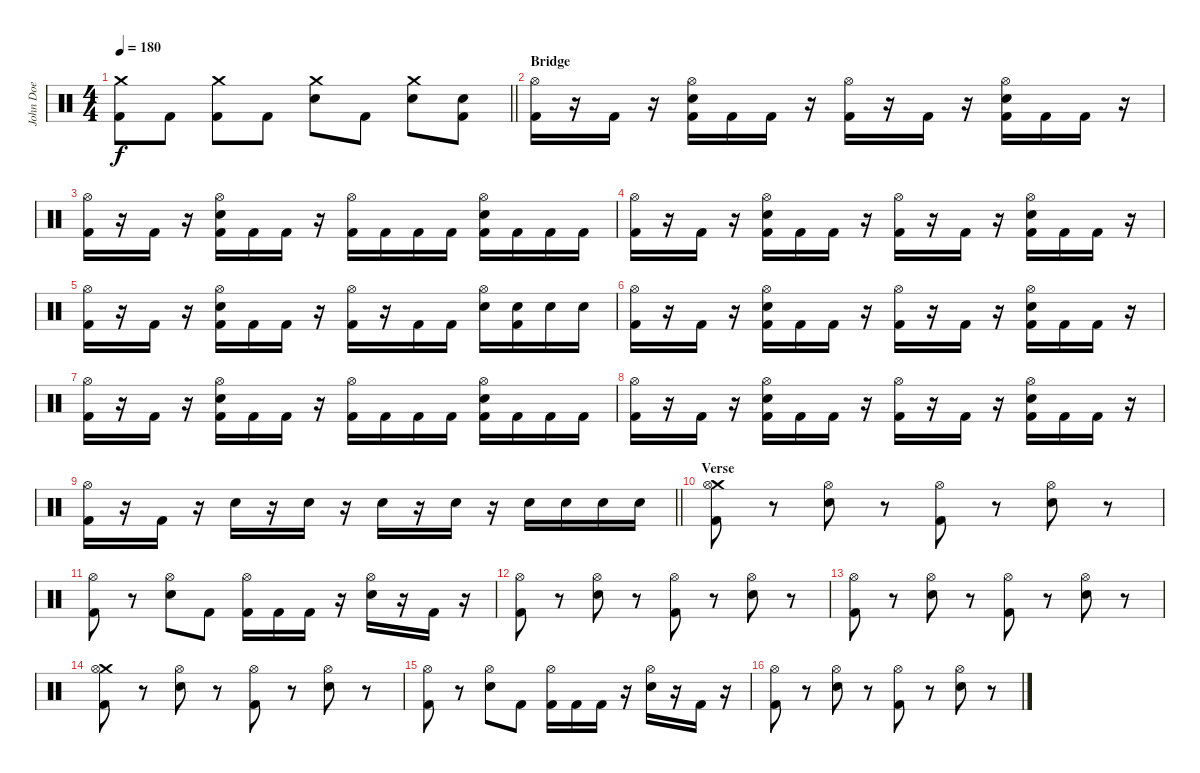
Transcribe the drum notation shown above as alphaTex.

\track ("John Doe" "John Doe") {instrument percussion}
\staff {score}
\articulation defaults
\ts (4 4)
\tempo 180
\clef neutral
\barLineRight lightlight
\ks c
("Crash medium (hit)" "Kick (hit) 2").8{dy f} "Kick (hit) 2".8 ("Crash medium (hit)" "Kick (hit) 2").8 "Kick (hit) 2".8 ("Crash medium (hit)" "Electric Snare (hit)").8 "Kick (hit) 2".8 ("Crash medium (hit)" "Electric Snare (hit)").8 ("Electric Snare (hit)" "Kick (hit) 2").8 |
\section ("" "Bridge")
("Hi-Hat (open)" "Kick (hit) 2").16 r.16 "Kick (hit) 2".16 r.16 ("Hi-Hat (open)" "Electric Snare (hit)" "Kick (hit) 2").16 "Kick (hit) 2".16 "Kick (hit) 2".16 r.16 ("Hi-Hat (open)" "Kick (hit) 2").16 r.16 "Kick (hit) 2".16 r.16 ("Hi-Hat (open)" "Electric Snare (hit)" "Kick (hit) 2").16 "Kick (hit) 2".16 "Kick (hit) 2".16 r.16 |
("Hi-Hat (open)" "Kick (hit) 2").16 r.16 "Kick (hit) 2".16 r.16 ("Hi-Hat (open)" "Electric Snare (hit)" "Kick (hit) 2").16 "Kick (hit) 2".16 "Kick (hit) 2".16 r.16 ("Hi-Hat (open)" "Kick (hit) 2").16 "Kick (hit) 2".16 "Kick (hit) 2".16 "Kick (hit) 2".16 ("Hi-Hat (open)" "Electric Snare (hit)" "Kick (hit) 2").16 "Kick (hit) 2".16 "Kick (hit) 2".16 "Kick (hit) 2".16 |
("Hi-Hat (open)" "Kick (hit) 2").16 r.16 "Kick (hit) 2".16 r.16 ("Hi-Hat (open)" "Electric Snare (hit)" "Kick (hit) 2").16 "Kick (hit) 2".16 "Kick (hit) 2".16 r.16 ("Hi-Hat (open)" "Kick (hit) 2").16 r.16 "Kick (hit) 2".16 r.16 ("Hi-Hat (open)" "Electric Snare (hit)" "Kick (hit) 2").16 "Kick (hit) 2".16 "Kick (hit) 2".16 r.16 |
("Hi-Hat (open)" "Kick (hit) 2").16 r.16 "Kick (hit) 2".16 r.16 ("Hi-Hat (open)" "Electric Snare (hit)" "Kick (hit) 2").16 "Kick (hit) 2".16 "Kick (hit) 2".16 r.16 ("Hi-Hat (open)" "Kick (hit) 2").16 r.16 "Kick (hit) 2".16 "Kick (hit) 2".16 ("Hi-Hat (open)" "Electric Snare (hit)").16 ("Electric Snare (hit)" "Kick (hit) 2").16 "Electric Snare (hit)".16 "Electric Snare (hit)".16 |
("Hi-Hat (open)" "Kick (hit) 2").16 r.16 "Kick (hit) 2".16 r.16 ("Hi-Hat (open)" "Electric Snare (hit)" "Kick (hit) 2").16 "Kick (hit) 2".16 "Kick (hit) 2".16 r.16 ("Hi-Hat (open)" "Kick (hit) 2").16 r.16 "Kick (hit) 2".16 r.16 ("Hi-Hat (open)" "Electric Snare (hit)" "Kick (hit) 2").16 "Kick (hit) 2".16 "Kick (hit) 2".16 r.16 |
("Hi-Hat (open)" "Kick (hit) 2").16 r.16 "Kick (hit) 2".16 r.16 ("Hi-Hat (open)" "Electric Snare (hit)" "Kick (hit) 2").16 "Kick (hit) 2".16 "Kick (hit) 2".16 r.16 ("Hi-Hat (open)" "Kick (hit) 2").16 "Kick (hit) 2".16 "Kick (hit) 2".16 "Kick (hit) 2".16 ("Hi-Hat (open)" "Electric Snare (hit)" "Kick (hit) 2").16 "Kick (hit) 2".16 "Kick (hit) 2".16 "Kick (hit) 2".16 |
("Hi-Hat (open)" "Kick (hit) 2").16 r.16 "Kick (hit) 2".16 r.16 ("Hi-Hat (open)" "Electric Snare (hit)" "Kick (hit) 2").16 "Kick (hit) 2".16 "Kick (hit) 2".16 r.16 ("Hi-Hat (open)" "Kick (hit) 2").16 r.16 "Kick (hit) 2".16 r.16 ("Hi-Hat (open)" "Electric Snare (hit)" "Kick (hit) 2").16 "Kick (hit) 2".16 "Kick (hit) 2".16 r.16 |
\barLineRight lightlight
("Hi-Hat (open)" "Kick (hit) 2").16 r.16 "Kick (hit) 2".16 r.16 "Electric Snare (hit)".16 r.16 "Electric Snare (hit)".16 r.16 "Electric Snare (hit)".16 r.16 "Electric Snare (hit)".16 r.16 "Electric Snare (hit)".16 "Electric Snare (hit)".16 "Electric Snare (hit)".16 "Electric Snare (hit)".16 |
\section ("" "Verse")
("Crash medium (hit)" "Hi-Hat (open)" "Kick (hit) 2").8 r.8 ("Hi-Hat (open)" "Electric Snare (hit)").8 r.8 ("Hi-Hat (open)" "Kick (hit) 2").8 r.8 ("Hi-Hat (open)" "Electric Snare (hit)").8 r.8 |
("Hi-Hat (open)" "Kick (hit) 2").8 r.8 ("Hi-Hat (open)" "Electric Snare (hit)").8 "Kick (hit) 2".8 ("Hi-Hat (open)" "Kick (hit) 2").16 "Kick (hit) 2".16 "Kick (hit) 2".16 r.16 ("Hi-Hat (open)" "Electric Snare (hit)").16 r.16 "Kick (hit) 2".16 r.16 |
("Hi-Hat (open)" "Kick (hit) 2").8 r.8 ("Hi-Hat (open)" "Electric Snare (hit)").8 r.8 ("Hi-Hat (open)" "Kick (hit) 2").8 r.8 ("Hi-Hat (open)" "Electric Snare (hit)").8 r.8 |
("Hi-Hat (open)" "Kick (hit) 2").8 r.8 ("Hi-Hat (open)" "Electric Snare (hit)").8 r.8 ("Hi-Hat (open)" "Kick (hit) 2").8 r.8 ("Hi-Hat (open)" "Electric Snare (hit)").8 r.8 |
("Crash medium (hit)" "Hi-Hat (open)" "Kick (hit) 2").8 r.8 ("Hi-Hat (open)" "Electric Snare (hit)").8 r.8 ("Hi-Hat (open)" "Kick (hit) 2").8 r.8 ("Hi-Hat (open)" "Electric Snare (hit)").8 r.8 |
("Hi-Hat (open)" "Kick (hit) 2").8 r.8 ("Hi-Hat (open)" "Electric Snare (hit)").8 "Kick (hit) 2".8 ("Hi-Hat (open)" "Kick (hit) 2").16 "Kick (hit) 2".16 "Kick (hit) 2".16 r.16 ("Hi-Hat (open)" "Electric Snare (hit)").16 r.16 "Kick (hit) 2".16 r.16 |
("Hi-Hat (open)" "Kick (hit) 2").8 r.8 ("Hi-Hat (open)" "Electric Snare (hit)").8 r.8 ("Hi-Hat (open)" "Kick (hit) 2").8 r.8 ("Hi-Hat (open)" "Electric Snare (hit)").8 r.8
